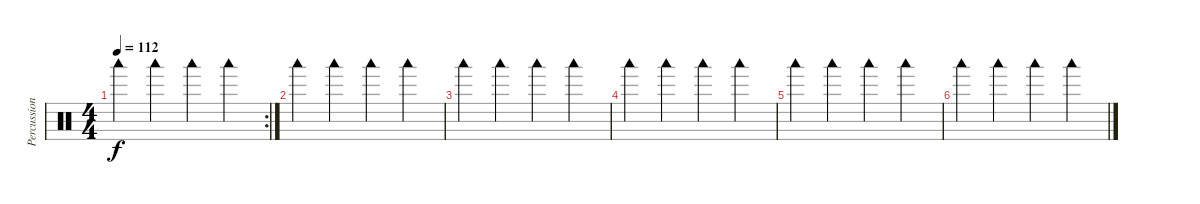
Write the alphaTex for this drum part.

\track ("Percussion" "Percussion") {instrument percussion}
\staff {score}
\articulation defaults
\rc 2
\ts (4 4)
\tempo 112
\clef neutral
\ks c "Woodblock low (hit)".4{dy f} "Woodblock low (hit)".4 "Woodblock low (hit)".4 "Woodblock low (hit)".4
|
"Woodblock low (hit)".4 "Woodblock low (hit)".4 "Woodblock low (hit)".4 "Woodblock low (hit)".4 |
"Woodblock low (hit)".4 "Woodblock low (hit)".4 "Woodblock low (hit)".4 "Woodblock low (hit)".4 |
"Woodblock low (hit)".4 "Woodblock low (hit)".4 "Woodblock low (hit)".4 "Woodblock low (hit)".4 |
"Woodblock low (hit)".4 "Woodblock low (hit)".4 "Woodblock low (hit)".4 "Woodblock low (hit)".4 |
"Woodblock low (hit)".4 "Woodblock low (hit)".4 "Woodblock low (hit)".4 "Woodblock low (hit)".4
